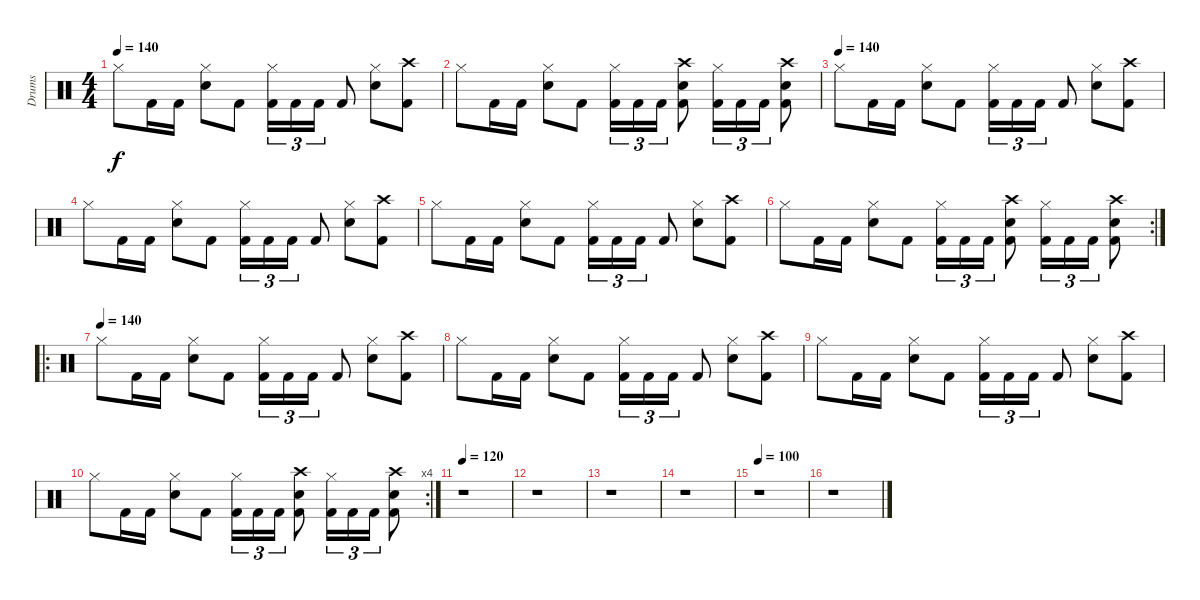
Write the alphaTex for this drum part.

\track ("Drums" "Drums") {instrument percussion}
\staff {score}
\articulation defaults
\ts (4 4)
\tempo 140
\clef neutral
\ks c "Hi-Hat (closed)".8{dy f} "Kick (hit) 2".16 "Kick (hit) 2".16
("Hi-Hat (closed)" "Snare (hit) 2").8 "Kick (hit) 2".8 ("Hi-Hat (closed)" "Kick (hit) 2").16{tu (3 2)} "Kick (hit) 2".16{tu (3 2)} "Kick (hit) 2".16{tu (3 2)} "Kick (hit) 2".8 ("Hi-Hat (closed)" "Snare (hit) 2").8 ("Crash high (hit)" "Kick (hit) 2").8 |
"Hi-Hat (closed)".8 "Kick (hit) 2".16 "Kick (hit) 2".16 ("Hi-Hat (closed)" "Snare (hit) 2").8 "Kick (hit) 2".8 ("Hi-Hat (closed)" "Kick (hit) 2").16{tu (3 2)} "Kick (hit) 2".16{tu (3 2)} "Kick (hit) 2".16{tu (3 2)} ("Crash high (hit)" "Snare (hit) 2" "Kick (hit) 2").8 ("Hi-Hat (closed)" "Kick (hit) 2").16{tu (3 2)} "Kick (hit) 2".16{tu (3 2)} "Kick (hit) 2".16{tu (3 2)} ("Crash high (hit)" "Snare (hit) 2" "Kick (hit) 2").8 |
\tempo (140)
"Hi-Hat (closed)".8 "Kick (hit) 2".16 "Kick (hit) 2".16 ("Hi-Hat (closed)" "Snare (hit) 2").8 "Kick (hit) 2".8 ("Hi-Hat (closed)" "Kick (hit) 2").16{tu (3 2)} "Kick (hit) 2".16{tu (3 2)} "Kick (hit) 2".16{tu (3 2)} "Kick (hit) 2".8 ("Hi-Hat (closed)" "Snare (hit) 2").8 ("Crash high (hit)" "Kick (hit) 2").8 |
"Hi-Hat (closed)".8 "Kick (hit) 2".16 "Kick (hit) 2".16 ("Hi-Hat (closed)" "Snare (hit) 2").8 "Kick (hit) 2".8 ("Hi-Hat (closed)" "Kick (hit) 2").16{tu (3 2)} "Kick (hit) 2".16{tu (3 2)} "Kick (hit) 2".16{tu (3 2)} "Kick (hit) 2".8 ("Hi-Hat (closed)" "Snare (hit) 2").8 ("Crash high (hit)" "Kick (hit) 2").8 |
"Hi-Hat (closed)".8 "Kick (hit) 2".16 "Kick (hit) 2".16 ("Hi-Hat (closed)" "Snare (hit) 2").8 "Kick (hit) 2".8 ("Hi-Hat (closed)" "Kick (hit) 2").16{tu (3 2)} "Kick (hit) 2".16{tu (3 2)} "Kick (hit) 2".16{tu (3 2)} "Kick (hit) 2".8 ("Hi-Hat (closed)" "Snare (hit) 2").8 ("Crash high (hit)" "Kick (hit) 2").8 |
\rc 2 "Hi-Hat (closed)".8 "Kick (hit) 2".16 "Kick (hit) 2".16
("Hi-Hat (closed)" "Snare (hit) 2").8 "Kick (hit) 2".8 ("Hi-Hat (closed)" "Kick (hit) 2").16{tu (3 2)} "Kick (hit) 2".16{tu (3 2)} "Kick (hit) 2".16{tu (3 2)} ("Crash high (hit)" "Snare (hit) 2" "Kick (hit) 2").8 ("Hi-Hat (closed)" "Kick (hit) 2").16{tu (3 2)} "Kick (hit) 2".16{tu (3 2)} "Kick (hit) 2".16{tu (3 2)} ("Crash high (hit)" "Snare (hit) 2" "Kick (hit) 2").8 |
\ro
\tempo (140)
"Hi-Hat (closed)".8 "Kick (hit) 2".16 "Kick (hit) 2".16 ("Hi-Hat (closed)" "Snare (hit) 2").8 "Kick (hit) 2".8 ("Hi-Hat (closed)" "Kick (hit) 2").16{tu (3 2)} "Kick (hit) 2".16{tu (3 2)} "Kick (hit) 2".16{tu (3 2)} "Kick (hit) 2".8 ("Hi-Hat (closed)" "Snare (hit) 2").8 ("Crash high (hit)" "Kick (hit) 2").8 |
"Hi-Hat (closed)".8 "Kick (hit) 2".16 "Kick (hit) 2".16 ("Hi-Hat (closed)" "Snare (hit) 2").8 "Kick (hit) 2".8 ("Hi-Hat (closed)" "Kick (hit) 2").16{tu (3 2)} "Kick (hit) 2".16{tu (3 2)} "Kick (hit) 2".16{tu (3 2)} "Kick (hit) 2".8 ("Hi-Hat (closed)" "Snare (hit) 2").8 ("Crash high (hit)" "Kick (hit) 2").8 |
"Hi-Hat (closed)".8 "Kick (hit) 2".16 "Kick (hit) 2".16 ("Hi-Hat (closed)" "Snare (hit) 2").8 "Kick (hit) 2".8 ("Hi-Hat (closed)" "Kick (hit) 2").16{tu (3 2)} "Kick (hit) 2".16{tu (3 2)} "Kick (hit) 2".16{tu (3 2)} "Kick (hit) 2".8 ("Hi-Hat (closed)" "Snare (hit) 2").8 ("Crash high (hit)" "Kick (hit) 2").8 |
\rc 4 "Hi-Hat (closed)".8 "Kick (hit) 2".16 "Kick (hit) 2".16
("Hi-Hat (closed)" "Snare (hit) 2").8 "Kick (hit) 2".8 ("Hi-Hat (closed)" "Kick (hit) 2").16{tu (3 2)} "Kick (hit) 2".16{tu (3 2)} "Kick (hit) 2".16{tu (3 2)} ("Crash high (hit)" "Snare (hit) 2" "Kick (hit) 2").8 ("Hi-Hat (closed)" "Kick (hit) 2").16{tu (3 2)} "Kick (hit) 2".16{tu (3 2)} "Kick (hit) 2".16{tu (3 2)} ("Crash high (hit)" "Snare (hit) 2" "Kick (hit) 2").8 |
\tempo 120
r.1 |
r.1 |
r.1 |
r.1 |
\tempo 100
r.1 |
r.1
